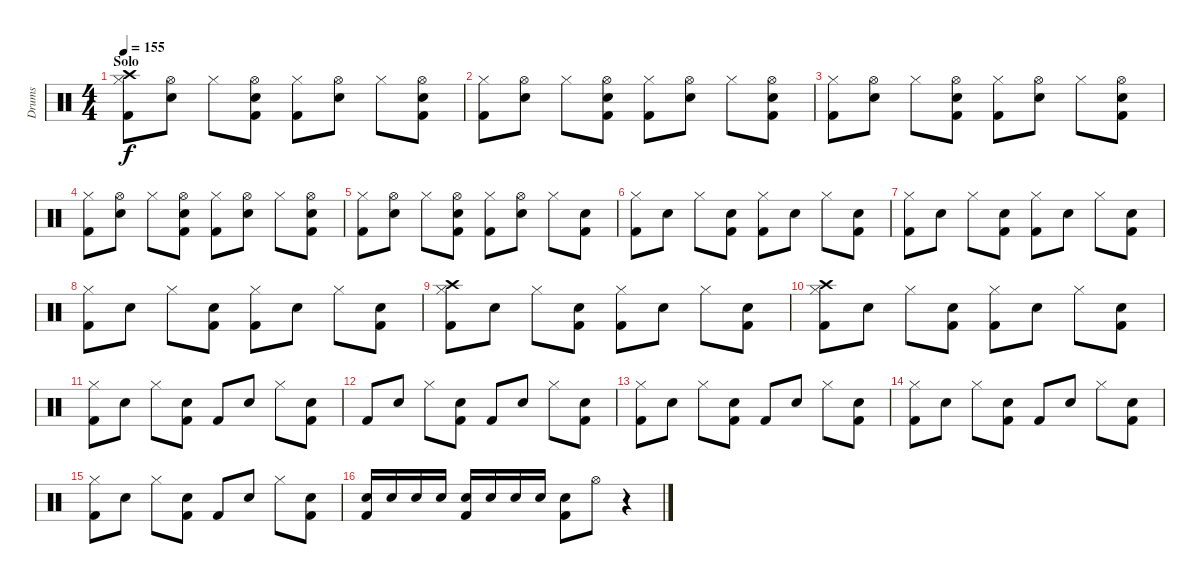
\track ("Drums" "Drums") {instrument percussion}
\staff {score}
\articulation defaults
\ts (4 4)
\section ("" "Solo")
\tempo 155
\clef neutral
\ks c
("Crash high (hit)" "Hi-Hat (closed)" "Kick (hit) 2").8{dy f} ("Hi-Hat (open)" "Electric Snare (hit)").8 "Hi-Hat (closed)".8 ("Hi-Hat (open)" "Electric Snare (hit)" "Kick (hit) 2").8 ("Hi-Hat (closed)" "Kick (hit) 2").8 ("Hi-Hat (open)" "Electric Snare (hit)").8 "Hi-Hat (closed)".8 ("Hi-Hat (open)" "Electric Snare (hit)" "Kick (hit) 2").8 |
("Hi-Hat (closed)" "Kick (hit) 2").8 ("Hi-Hat (open)" "Electric Snare (hit)").8 "Hi-Hat (closed)".8 ("Hi-Hat (open)" "Electric Snare (hit)" "Kick (hit) 2").8 ("Hi-Hat (closed)" "Kick (hit) 2").8 ("Hi-Hat (open)" "Electric Snare (hit)").8 "Hi-Hat (closed)".8 ("Hi-Hat (open)" "Electric Snare (hit)" "Kick (hit) 2").8 |
("Hi-Hat (closed)" "Kick (hit) 2").8 ("Hi-Hat (open)" "Electric Snare (hit)").8 "Hi-Hat (closed)".8 ("Hi-Hat (open)" "Electric Snare (hit)" "Kick (hit) 2").8 ("Hi-Hat (closed)" "Kick (hit) 2").8 ("Hi-Hat (open)" "Electric Snare (hit)").8 "Hi-Hat (closed)".8 ("Hi-Hat (open)" "Electric Snare (hit)" "Kick (hit) 2").8 |
("Hi-Hat (closed)" "Kick (hit) 2").8 ("Hi-Hat (open)" "Electric Snare (hit)").8 "Hi-Hat (closed)".8 ("Hi-Hat (open)" "Electric Snare (hit)" "Kick (hit) 2").8 ("Hi-Hat (closed)" "Kick (hit) 2").8 ("Hi-Hat (open)" "Electric Snare (hit)").8 "Hi-Hat (closed)".8 ("Hi-Hat (open)" "Electric Snare (hit)" "Kick (hit) 2").8 |
("Hi-Hat (closed)" "Kick (hit) 2").8 ("Hi-Hat (open)" "Electric Snare (hit)").8 "Hi-Hat (closed)".8 ("Hi-Hat (open)" "Electric Snare (hit)" "Kick (hit) 2").8 ("Hi-Hat (closed)" "Kick (hit) 2").8 ("Hi-Hat (open)" "Electric Snare (hit)").8 "Hi-Hat (closed)".8 ("Electric Snare (hit)" "Kick (hit) 2").8 |
("Hi-Hat (closed)" "Kick (hit) 2").8 "Electric Snare (hit)".8 "Hi-Hat (closed)".8 ("Electric Snare (hit)" "Kick (hit) 2").8 ("Hi-Hat (closed)" "Kick (hit) 2").8 "Electric Snare (hit)".8 "Hi-Hat (closed)".8 ("Electric Snare (hit)" "Kick (hit) 2").8 |
("Hi-Hat (closed)" "Kick (hit) 2").8 "Electric Snare (hit)".8 "Hi-Hat (closed)".8 ("Electric Snare (hit)" "Kick (hit) 2").8 ("Hi-Hat (closed)" "Kick (hit) 2").8 "Electric Snare (hit)".8 "Hi-Hat (closed)".8 ("Electric Snare (hit)" "Kick (hit) 2").8 |
("Hi-Hat (closed)" "Kick (hit) 2").8 "Electric Snare (hit)".8 "Hi-Hat (closed)".8 ("Electric Snare (hit)" "Kick (hit) 2").8 ("Hi-Hat (closed)" "Kick (hit) 2").8 "Electric Snare (hit)".8 "Hi-Hat (closed)".8 ("Electric Snare (hit)" "Kick (hit) 2").8 |
("Crash high (hit)" "Hi-Hat (closed)" "Kick (hit) 2").8 "Electric Snare (hit)".8 "Hi-Hat (closed)".8 ("Electric Snare (hit)" "Kick (hit) 2").8 ("Hi-Hat (closed)" "Kick (hit) 2").8 "Electric Snare (hit)".8 "Hi-Hat (closed)".8 ("Electric Snare (hit)" "Kick (hit) 2").8 |
("Crash high (hit)" "Hi-Hat (closed)" "Kick (hit) 2").8 "Electric Snare (hit)".8 "Hi-Hat (closed)".8 ("Electric Snare (hit)" "Kick (hit) 2").8 ("Hi-Hat (closed)" "Kick (hit) 2").8 "Electric Snare (hit)".8 "Hi-Hat (closed)".8 ("Electric Snare (hit)" "Kick (hit) 2").8 |
("Hi-Hat (closed)" "Kick (hit) 2").8 "Electric Snare (hit)".8 "Hi-Hat (closed)".8 ("Electric Snare (hit)" "Kick (hit) 2").8 "Kick (hit) 2".8 "Electric Snare (hit)".8 "Hi-Hat (closed)".8 ("Electric Snare (hit)" "Kick (hit) 2").8 |
"Kick (hit) 2".8 "Electric Snare (hit)".8 "Hi-Hat (closed)".8 ("Electric Snare (hit)" "Kick (hit) 2").8 "Kick (hit) 2".8 "Electric Snare (hit)".8 "Hi-Hat (closed)".8 ("Electric Snare (hit)" "Kick (hit) 2").8 |
("Hi-Hat (closed)" "Kick (hit) 2").8 "Electric Snare (hit)".8 "Hi-Hat (closed)".8 ("Electric Snare (hit)" "Kick (hit) 2").8 "Kick (hit) 2".8 "Electric Snare (hit)".8 "Hi-Hat (closed)".8 ("Electric Snare (hit)" "Kick (hit) 2").8 |
("Hi-Hat (closed)" "Kick (hit) 2").8 "Electric Snare (hit)".8 "Hi-Hat (closed)".8 ("Electric Snare (hit)" "Kick (hit) 2").8 "Kick (hit) 2".8 "Electric Snare (hit)".8 "Hi-Hat (closed)".8 ("Electric Snare (hit)" "Kick (hit) 2").8 |
("Hi-Hat (closed)" "Kick (hit) 2").8 "Electric Snare (hit)".8 "Hi-Hat (closed)".8 ("Electric Snare (hit)" "Kick (hit) 2").8 "Kick (hit) 2".8 "Electric Snare (hit)".8 "Hi-Hat (closed)".8 ("Electric Snare (hit)" "Kick (hit) 2").8 |
("Electric Snare (hit)" "Kick (hit) 2").16 "Electric Snare (hit)".16 "Electric Snare (hit)".16 "Electric Snare (hit)".16 ("Electric Snare (hit)" "Kick (hit) 2").16 "Electric Snare (hit)".16 "Electric Snare (hit)".16 "Electric Snare (hit)".16 ("Electric Snare (hit)" "Kick (hit) 2").8 "Hi-Hat (open)".8 r.4
